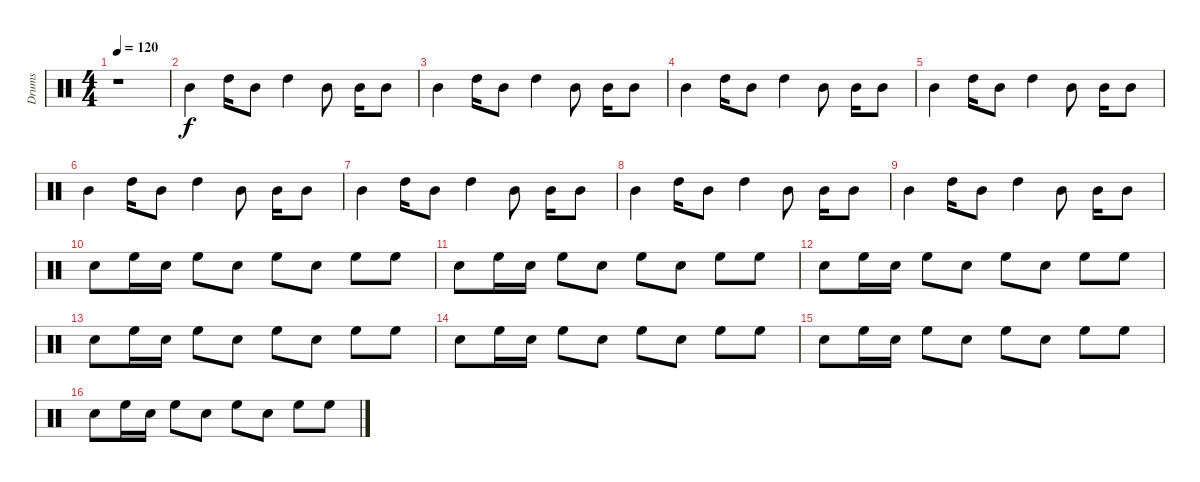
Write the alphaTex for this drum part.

\track ("Drums" "Drums") {instrument percussion}
\staff {score}
\articulation defaults
\ts (4 4)
\tempo 120
\clef neutral
\ks c
r.1{dy f} |
"Mid Tom (hit)".4 "High Tom (hit)".16 "Mid Tom (hit)".8 "High Tom (hit)".4 "Mid Tom (hit)".8 "Mid Tom (hit)".16 "Mid Tom (hit)".8 |
"Mid Tom (hit)".4 "High Tom (hit)".16 "Mid Tom (hit)".8 "High Tom (hit)".4 "Mid Tom (hit)".8 "Mid Tom (hit)".16 "Mid Tom (hit)".8 |
"Mid Tom (hit)".4 "High Tom (hit)".16 "Mid Tom (hit)".8 "High Tom (hit)".4 "Mid Tom (hit)".8 "Mid Tom (hit)".16 "Mid Tom (hit)".8 |
"Mid Tom (hit)".4 "High Tom (hit)".16 "Mid Tom (hit)".8 "High Tom (hit)".4 "Mid Tom (hit)".8 "Mid Tom (hit)".16 "Mid Tom (hit)".8 |
"Mid Tom (hit)".4 "High Tom (hit)".16 "Mid Tom (hit)".8 "High Tom (hit)".4 "Mid Tom (hit)".8 "Mid Tom (hit)".16 "Mid Tom (hit)".8 |
"Mid Tom (hit)".4 "High Tom (hit)".16 "Mid Tom (hit)".8 "High Tom (hit)".4 "Mid Tom (hit)".8 "Mid Tom (hit)".16 "Mid Tom (hit)".8 |
"Mid Tom (hit)".4 "High Tom (hit)".16 "Mid Tom (hit)".8 "High Tom (hit)".4 "Mid Tom (hit)".8 "Mid Tom (hit)".16 "Mid Tom (hit)".8 |
"Mid Tom (hit)".4 "High Tom (hit)".16 "Mid Tom (hit)".8 "High Tom (hit)".4 "Mid Tom (hit)".8 "Mid Tom (hit)".16 "Mid Tom (hit)".8 |
"Electric Snare (hit)".8 "High Floor Tom (hit)".16 "Electric Snare (hit)".16 "High Floor Tom (hit)".8 "Electric Snare (hit)".8 "High Floor Tom (hit)".8 "Electric Snare (hit)".8 "High Floor Tom (hit)".8 "High Floor Tom (hit)".8 |
"Electric Snare (hit)".8 "High Floor Tom (hit)".16 "Electric Snare (hit)".16 "High Floor Tom (hit)".8 "Electric Snare (hit)".8 "High Floor Tom (hit)".8 "Electric Snare (hit)".8 "High Floor Tom (hit)".8 "High Floor Tom (hit)".8 |
"Electric Snare (hit)".8 "High Floor Tom (hit)".16 "Electric Snare (hit)".16 "High Floor Tom (hit)".8 "Electric Snare (hit)".8 "High Floor Tom (hit)".8 "Electric Snare (hit)".8 "High Floor Tom (hit)".8 "High Floor Tom (hit)".8 |
"Electric Snare (hit)".8 "High Floor Tom (hit)".16 "Electric Snare (hit)".16 "High Floor Tom (hit)".8 "Electric Snare (hit)".8 "High Floor Tom (hit)".8 "Electric Snare (hit)".8 "High Floor Tom (hit)".8 "High Floor Tom (hit)".8 |
"Electric Snare (hit)".8 "High Floor Tom (hit)".16 "Electric Snare (hit)".16 "High Floor Tom (hit)".8 "Electric Snare (hit)".8 "High Floor Tom (hit)".8 "Electric Snare (hit)".8 "High Floor Tom (hit)".8 "High Floor Tom (hit)".8 |
"Electric Snare (hit)".8 "High Floor Tom (hit)".16 "Electric Snare (hit)".16 "High Floor Tom (hit)".8 "Electric Snare (hit)".8 "High Floor Tom (hit)".8 "Electric Snare (hit)".8 "High Floor Tom (hit)".8 "High Floor Tom (hit)".8 |
"Electric Snare (hit)".8 "High Floor Tom (hit)".16 "Electric Snare (hit)".16 "High Floor Tom (hit)".8 "Electric Snare (hit)".8 "High Floor Tom (hit)".8 "Electric Snare (hit)".8 "High Floor Tom (hit)".8 "High Floor Tom (hit)".8
